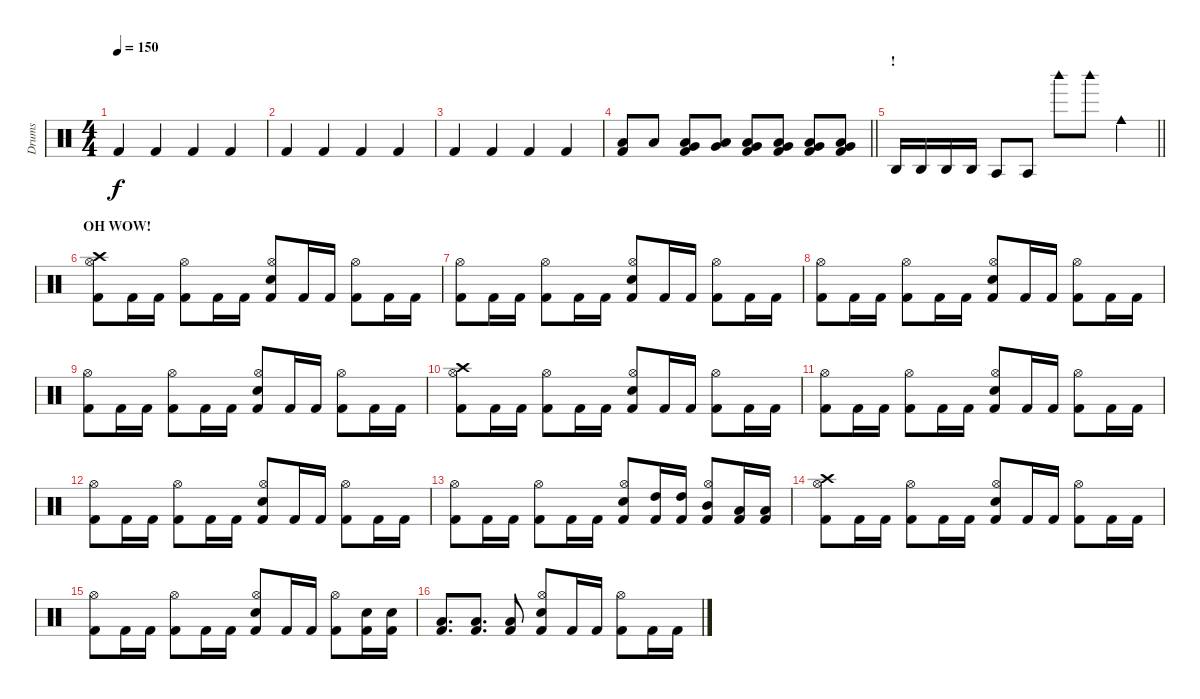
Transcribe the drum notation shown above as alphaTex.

\track ("Drums" "Drums") {instrument percussion}
\staff {score}
\articulation defaults
\ts (4 4)
\tempo 150
\clef neutral
\ks c "Kick (hit) 2".4{dy f} "Kick (hit) 2".4 "Kick (hit) 2".4 "Kick (hit) 2".4
|
"Kick (hit) 2".4 "Kick (hit) 2".4 "Kick (hit) 2".4 "Kick (hit) 2".4 |
"Kick (hit) 2".4 "Kick (hit) 2".4 "Kick (hit) 2".4 "Kick (hit) 2".4 |
\barLineRight lightlight
("Low Floor Tom (hit)" "Kick (hit) 2").8 "Low Floor Tom (hit)".8 ("Very Low Tom (hit)" "Low Floor Tom (hit)" "Kick (hit) 2").8 ("Very Low Tom (hit)" "Low Floor Tom (hit)").8 ("Very Low Tom (hit)" "Low Floor Tom (hit)" "Kick (hit) 2").8 ("Very Low Tom (hit)" "Low Floor Tom (hit)" "Kick (hit) 2").8 ("Low Tom (hit)" "Very Low Tom (hit)" "Kick (hit) 2").8 ("Low Tom (hit)" "Very Low Tom (hit)" "Kick (hit) 2").8 |
\section ("" "!")
\barLineRight lightlight "Agogo high (hit)".16 "Agogo high (hit)".16 "Agogo high (hit)".16 "Agogo high (hit)".16 "Agogo tow (hit)".8 "Agogo tow (hit)".8 "Woodblock high (hit)".8 "Woodblock high (hit)".8 "Cowbell medium (hit)".4
|
\section ("" "OH WOW!")
("Crash high (hit)" "Hi-Hat (open)" "Kick (hit) 2").8 "Kick (hit) 2".16 "Kick (hit) 2".16 ("Hi-Hat (open)" "Kick (hit) 2").8 "Kick (hit) 2".16 "Kick (hit) 2".16 ("Hi-Hat (open)" "Snare (hit) 2" "Kick (hit) 2").8 "Kick (hit) 2".16 "Kick (hit) 2".16 ("Hi-Hat (open)" "Kick (hit) 2").8 "Kick (hit) 2".16 "Kick (hit) 2".16 |
("Hi-Hat (open)" "Kick (hit) 2").8 "Kick (hit) 2".16 "Kick (hit) 2".16 ("Hi-Hat (open)" "Kick (hit) 2").8 "Kick (hit) 2".16 "Kick (hit) 2".16 ("Hi-Hat (open)" "Snare (hit) 2" "Kick (hit) 2").8 "Kick (hit) 2".16 "Kick (hit) 2".16 ("Hi-Hat (open)" "Kick (hit) 2").8 "Kick (hit) 2".16 "Kick (hit) 2".16 |
("Hi-Hat (open)" "Kick (hit) 2").8 "Kick (hit) 2".16 "Kick (hit) 2".16 ("Hi-Hat (open)" "Kick (hit) 2").8 "Kick (hit) 2".16 "Kick (hit) 2".16 ("Hi-Hat (open)" "Snare (hit) 2" "Kick (hit) 2").8 "Kick (hit) 2".16 "Kick (hit) 2".16 ("Hi-Hat (open)" "Kick (hit) 2").8 "Kick (hit) 2".16 "Kick (hit) 2".16 |
("Hi-Hat (open)" "Kick (hit) 2").8 "Kick (hit) 2".16 "Kick (hit) 2".16 ("Hi-Hat (open)" "Kick (hit) 2").8 "Kick (hit) 2".16 "Kick (hit) 2".16 ("Hi-Hat (open)" "Snare (hit) 2" "Kick (hit) 2").8 "Kick (hit) 2".16 "Kick (hit) 2".16 ("Hi-Hat (open)" "Kick (hit) 2").8 "Kick (hit) 2".16 "Kick (hit) 2".16 |
("Crash high (hit)" "Hi-Hat (open)" "Kick (hit) 2").8 "Kick (hit) 2".16 "Kick (hit) 2".16 ("Hi-Hat (open)" "Kick (hit) 2").8 "Kick (hit) 2".16 "Kick (hit) 2".16 ("Hi-Hat (open)" "Snare (hit) 2" "Kick (hit) 2").8 "Kick (hit) 2".16 "Kick (hit) 2".16 ("Hi-Hat (open)" "Kick (hit) 2").8 "Kick (hit) 2".16 "Kick (hit) 2".16 |
("Hi-Hat (open)" "Kick (hit) 2").8 "Kick (hit) 2".16 "Kick (hit) 2".16 ("Hi-Hat (open)" "Kick (hit) 2").8 "Kick (hit) 2".16 "Kick (hit) 2".16 ("Hi-Hat (open)" "Snare (hit) 2" "Kick (hit) 2").8 "Kick (hit) 2".16 "Kick (hit) 2".16 ("Hi-Hat (open)" "Kick (hit) 2").8 "Kick (hit) 2".16 "Kick (hit) 2".16 |
("Hi-Hat (open)" "Kick (hit) 2").8 "Kick (hit) 2".16 "Kick (hit) 2".16 ("Hi-Hat (open)" "Kick (hit) 2").8 "Kick (hit) 2".16 "Kick (hit) 2".16 ("Hi-Hat (open)" "Snare (hit) 2" "Kick (hit) 2").8 "Kick (hit) 2".16 "Kick (hit) 2".16 ("Hi-Hat (open)" "Kick (hit) 2").8 "Kick (hit) 2".16 "Kick (hit) 2".16 |
("Hi-Hat (open)" "Kick (hit) 2").8 "Kick (hit) 2".16 "Kick (hit) 2".16 ("Hi-Hat (open)" "Kick (hit) 2").8 "Kick (hit) 2".16 "Kick (hit) 2".16 ("Hi-Hat (open)" "Snare (hit) 2" "Kick (hit) 2").8 ("High Tom (hit)" "Kick (hit) 2").16 ("High Tom (hit)" "Kick (hit) 2").16 ("Hi-Hat (open)" "Mid Tom (hit)" "Kick (hit) 2").8 ("Low Tom (hit)" "Kick (hit) 2").16 ("Low Tom (hit)" "Kick (hit) 2").16 |
("Crash high (hit)" "Hi-Hat (open)" "Kick (hit) 2").8 "Kick (hit) 2".16 "Kick (hit) 2".16 ("Hi-Hat (open)" "Kick (hit) 2").8 "Kick (hit) 2".16 "Kick (hit) 2".16 ("Hi-Hat (open)" "Snare (hit) 2" "Kick (hit) 2").8 "Kick (hit) 2".16 "Kick (hit) 2".16 ("Hi-Hat (open)" "Kick (hit) 2").8 "Kick (hit) 2".16 "Kick (hit) 2".16 |
("Hi-Hat (open)" "Kick (hit) 2").8 "Kick (hit) 2".16 "Kick (hit) 2".16 ("Hi-Hat (open)" "Kick (hit) 2").8 "Kick (hit) 2".16 "Kick (hit) 2".16 ("Hi-Hat (open)" "Snare (hit) 2" "Kick (hit) 2").8 "Kick (hit) 2".16 "Kick (hit) 2".16 ("Hi-Hat (open)" "Kick (hit) 2").8 ("Snare (hit) 2" "Kick (hit) 2").16 ("Snare (hit) 2" "Kick (hit) 2").16 |
("Low Floor Tom (hit)" "Kick (hit) 2").8{d} ("Low Floor Tom (hit)" "Kick (hit) 2").8{d} ("Low Floor Tom (hit)" "Kick (hit) 2").8 ("Hi-Hat (open)" "Snare (hit) 2" "Kick (hit) 2").8 "Kick (hit) 2".16 "Kick (hit) 2".16 ("Hi-Hat (open)" "Kick (hit) 2").8 "Kick (hit) 2".16 "Kick (hit) 2".16
